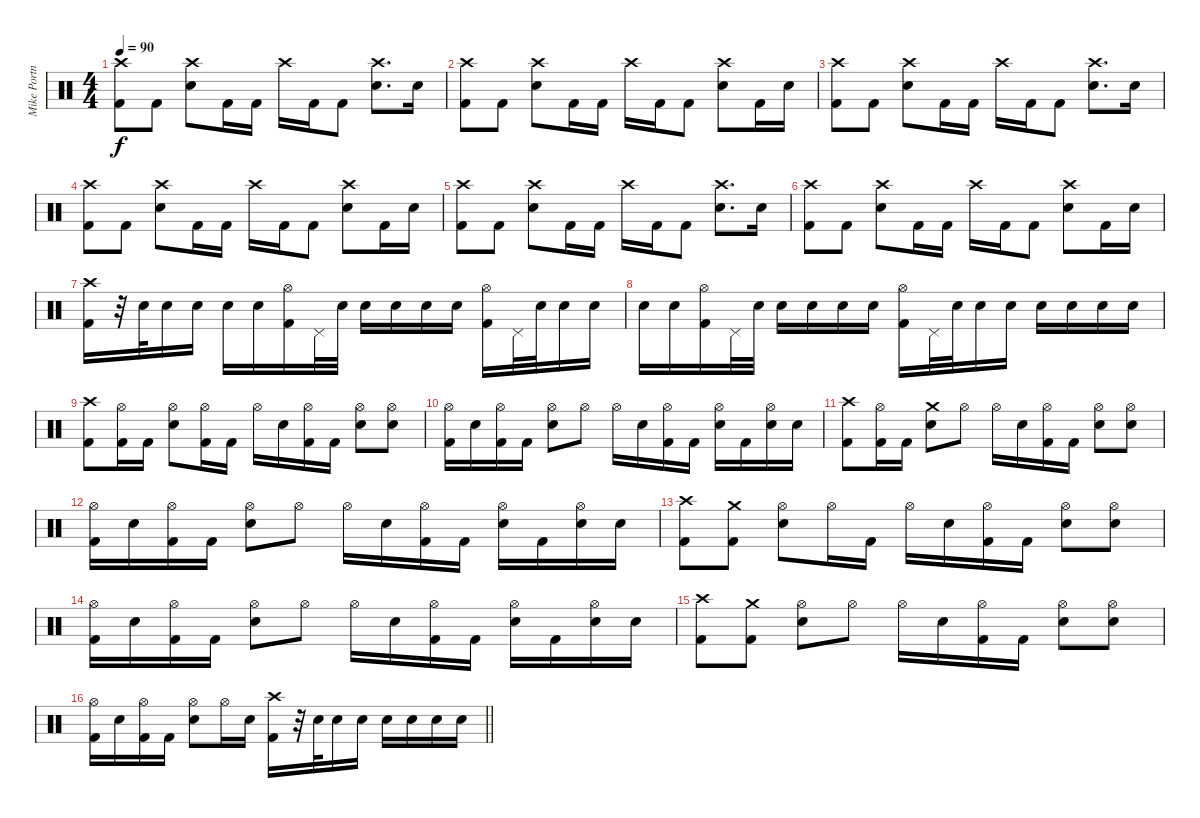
\track ("Mike Portnoy" "Mike Portn") {instrument percussion}
\staff {score}
\articulation defaults
\ts (4 4)
\tempo 90
\clef neutral
\ks c
("Crash high (hit)" "Kick (hit) 2").8{dy f} "Kick (hit) 2".8 ("Crash high (hit)" "Snare (hit) 2").8 "Kick (hit) 2".16 "Kick (hit) 2".16 "Crash high (hit)".16 "Kick (hit) 2".16 "Kick (hit) 2".8 ("Crash high (hit)" "Snare (hit) 2").8{d} "Snare (hit) 2".16 |
("Crash high (hit)" "Kick (hit) 2").8 "Kick (hit) 2".8 ("Crash high (hit)" "Snare (hit) 2").8 "Kick (hit) 2".16 "Kick (hit) 2".16 "Crash high (hit)".16 "Kick (hit) 2".16 "Kick (hit) 2".8 ("Crash high (hit)" "Snare (hit) 2").8 "Kick (hit) 2".16 "Snare (hit) 2".16 |
("Crash high (hit)" "Kick (hit) 2").8 "Kick (hit) 2".8 ("Crash high (hit)" "Snare (hit) 2").8 "Kick (hit) 2".16 "Kick (hit) 2".16 "Crash high (hit)".16 "Kick (hit) 2".16 "Kick (hit) 2".8 ("Crash high (hit)" "Snare (hit) 2").8{d} "Snare (hit) 2".16 |
("Crash high (hit)" "Kick (hit) 2").8 "Kick (hit) 2".8 ("Crash high (hit)" "Snare (hit) 2").8 "Kick (hit) 2".16 "Kick (hit) 2".16 "Crash high (hit)".16 "Kick (hit) 2".16 "Kick (hit) 2".8 ("Crash high (hit)" "Snare (hit) 2").8 "Kick (hit) 2".16 "Snare (hit) 2".16 |
("Crash high (hit)" "Kick (hit) 2").8 "Kick (hit) 2".8 ("Crash high (hit)" "Snare (hit) 2").8 "Kick (hit) 2".16 "Kick (hit) 2".16 "Crash high (hit)".16 "Kick (hit) 2".16 "Kick (hit) 2".8 ("Crash high (hit)" "Snare (hit) 2").8{d} "Snare (hit) 2".16 |
("Crash high (hit)" "Kick (hit) 2").8 "Kick (hit) 2".8 ("Crash high (hit)" "Snare (hit) 2").8 "Kick (hit) 2".16 "Kick (hit) 2".16 "Crash high (hit)".16 "Kick (hit) 2".16 "Kick (hit) 2".8 ("Crash high (hit)" "Snare (hit) 2").8 "Kick (hit) 2".16 "Snare (hit) 2".16 |
("Crash high (hit)" "Kick (hit) 2").16 r.32 "Snare (hit) 2".32 "Snare (hit) 2".16 "Snare (hit) 2".16 "Snare (hit) 2".16 "Snare (hit) 2".16 ("Hi-Hat (open)" "Kick (hit) 2").16 "Pedal Hi-Hat (hit)".32 "Snare (hit) 2".32 "Snare (hit) 2".16 "Snare (hit) 2".16 "Snare (hit) 2".16 "Snare (hit) 2".16 ("Hi-Hat (open)" "Kick (hit) 2").16 "Pedal Hi-Hat (hit)".32 "Snare (hit) 2".32 "Snare (hit) 2".16 "Snare (hit) 2".16 |
"Snare (hit) 2".16 "Snare (hit) 2".16 ("Hi-Hat (open)" "Kick (hit) 2").16 "Pedal Hi-Hat (hit)".32 "Snare (hit) 2".32 "Snare (hit) 2".16 "Snare (hit) 2".16 "Snare (hit) 2".16 "Snare (hit) 2".16 ("Hi-Hat (open)" "Kick (hit) 2").16 "Pedal Hi-Hat (hit)".32 "Snare (hit) 2".32 "Snare (hit) 2".16 "Snare (hit) 2".16 "Snare (hit) 2".16 "Snare (hit) 2".16 "Snare (hit) 2".16 "Snare (hit) 2".16 |
("Crash high (hit)" "Kick (hit) 2").8 ("Hi-Hat (open)" "Kick (hit) 2").16 "Kick (hit) 2".16 ("Hi-Hat (open)" "Snare (hit) 2").8 ("Hi-Hat (open)" "Kick (hit) 2").16 "Kick (hit) 2".16 "Hi-Hat (open)".16 "Snare (hit) 2".16 ("Hi-Hat (open)" "Kick (hit) 2").16 "Kick (hit) 2".16 ("Hi-Hat (open)" "Snare (hit) 2").8 ("Hi-Hat (open)" "Snare (hit) 2").8 |
("Hi-Hat (open)" "Kick (hit) 2").16 "Snare (hit) 2".16 ("Hi-Hat (open)" "Kick (hit) 2").16 "Kick (hit) 2".16 ("Hi-Hat (open)" "Snare (hit) 2").8 "Hi-Hat (open)".8 "Hi-Hat (open)".16 "Snare (hit) 2".16 ("Hi-Hat (open)" "Kick (hit) 2").16 "Kick (hit) 2".16 ("Hi-Hat (open)" "Snare (hit) 2").16 "Kick (hit) 2".16 ("Hi-Hat (open)" "Snare (hit) 2").16 "Snare (hit) 2".16 |
("Crash high (hit)" "Kick (hit) 2").8 ("Hi-Hat (open)" "Kick (hit) 2").16 "Kick (hit) 2".16 ("Crash medium (hit)" "Snare (hit) 2").8 "Hi-Hat (open)".8 "Hi-Hat (open)".16 "Snare (hit) 2".16 ("Hi-Hat (open)" "Kick (hit) 2").16 "Kick (hit) 2".16 ("Hi-Hat (open)" "Snare (hit) 2").8 ("Hi-Hat (open)" "Snare (hit) 2").8 |
("Hi-Hat (open)" "Kick (hit) 2").16 "Snare (hit) 2".16 ("Hi-Hat (open)" "Kick (hit) 2").16 "Kick (hit) 2".16 ("Hi-Hat (open)" "Snare (hit) 2").8 "Hi-Hat (open)".8 "Hi-Hat (open)".16 "Snare (hit) 2".16 ("Hi-Hat (open)" "Kick (hit) 2").16 "Kick (hit) 2".16 ("Hi-Hat (open)" "Snare (hit) 2").16 "Kick (hit) 2".16 ("Hi-Hat (open)" "Snare (hit) 2").16 "Snare (hit) 2".16 |
("Crash high (hit)" "Kick (hit) 2").8 ("Crash medium (hit)" "Kick (hit) 2").8 ("Hi-Hat (open)" "Snare (hit) 2").8 "Hi-Hat (open)".16 "Kick (hit) 2".16 "Hi-Hat (open)".16 "Snare (hit) 2".16 ("Hi-Hat (open)" "Kick (hit) 2").16 "Kick (hit) 2".16 ("Hi-Hat (open)" "Snare (hit) 2").8 ("Hi-Hat (open)" "Snare (hit) 2").8 |
("Hi-Hat (open)" "Kick (hit) 2").16 "Snare (hit) 2".16 ("Hi-Hat (open)" "Kick (hit) 2").16 "Kick (hit) 2".16 ("Hi-Hat (open)" "Snare (hit) 2").8 "Hi-Hat (open)".8 "Hi-Hat (open)".16 "Snare (hit) 2".16 ("Hi-Hat (open)" "Kick (hit) 2").16 "Kick (hit) 2".16 ("Hi-Hat (open)" "Snare (hit) 2").16 "Kick (hit) 2".16 ("Hi-Hat (open)" "Snare (hit) 2").16 "Snare (hit) 2".16 |
("Crash high (hit)" "Kick (hit) 2").8 ("Crash medium (hit)" "Kick (hit) 2").8 ("Hi-Hat (open)" "Snare (hit) 2").8 "Hi-Hat (open)".8 "Hi-Hat (open)".16 "Snare (hit) 2".16 ("Hi-Hat (open)" "Kick (hit) 2").16 "Kick (hit) 2".16 ("Hi-Hat (open)" "Snare (hit) 2").8 ("Hi-Hat (open)" "Snare (hit) 2").8 |
\barLineRight lightlight
("Hi-Hat (open)" "Kick (hit) 2").16 "Snare (hit) 2".16 ("Hi-Hat (open)" "Kick (hit) 2").16 "Kick (hit) 2".16 ("Hi-Hat (open)" "Snare (hit) 2").8 "Hi-Hat (open)".16 "Snare (hit) 2".16 ("Crash high (hit)" "Kick (hit) 2").16 r.32 "Snare (hit) 2".32 "Snare (hit) 2".16 "Snare (hit) 2".16 "Snare (hit) 2".16 "Snare (hit) 2".16 "Snare (hit) 2".16 "Snare (hit) 2".16
